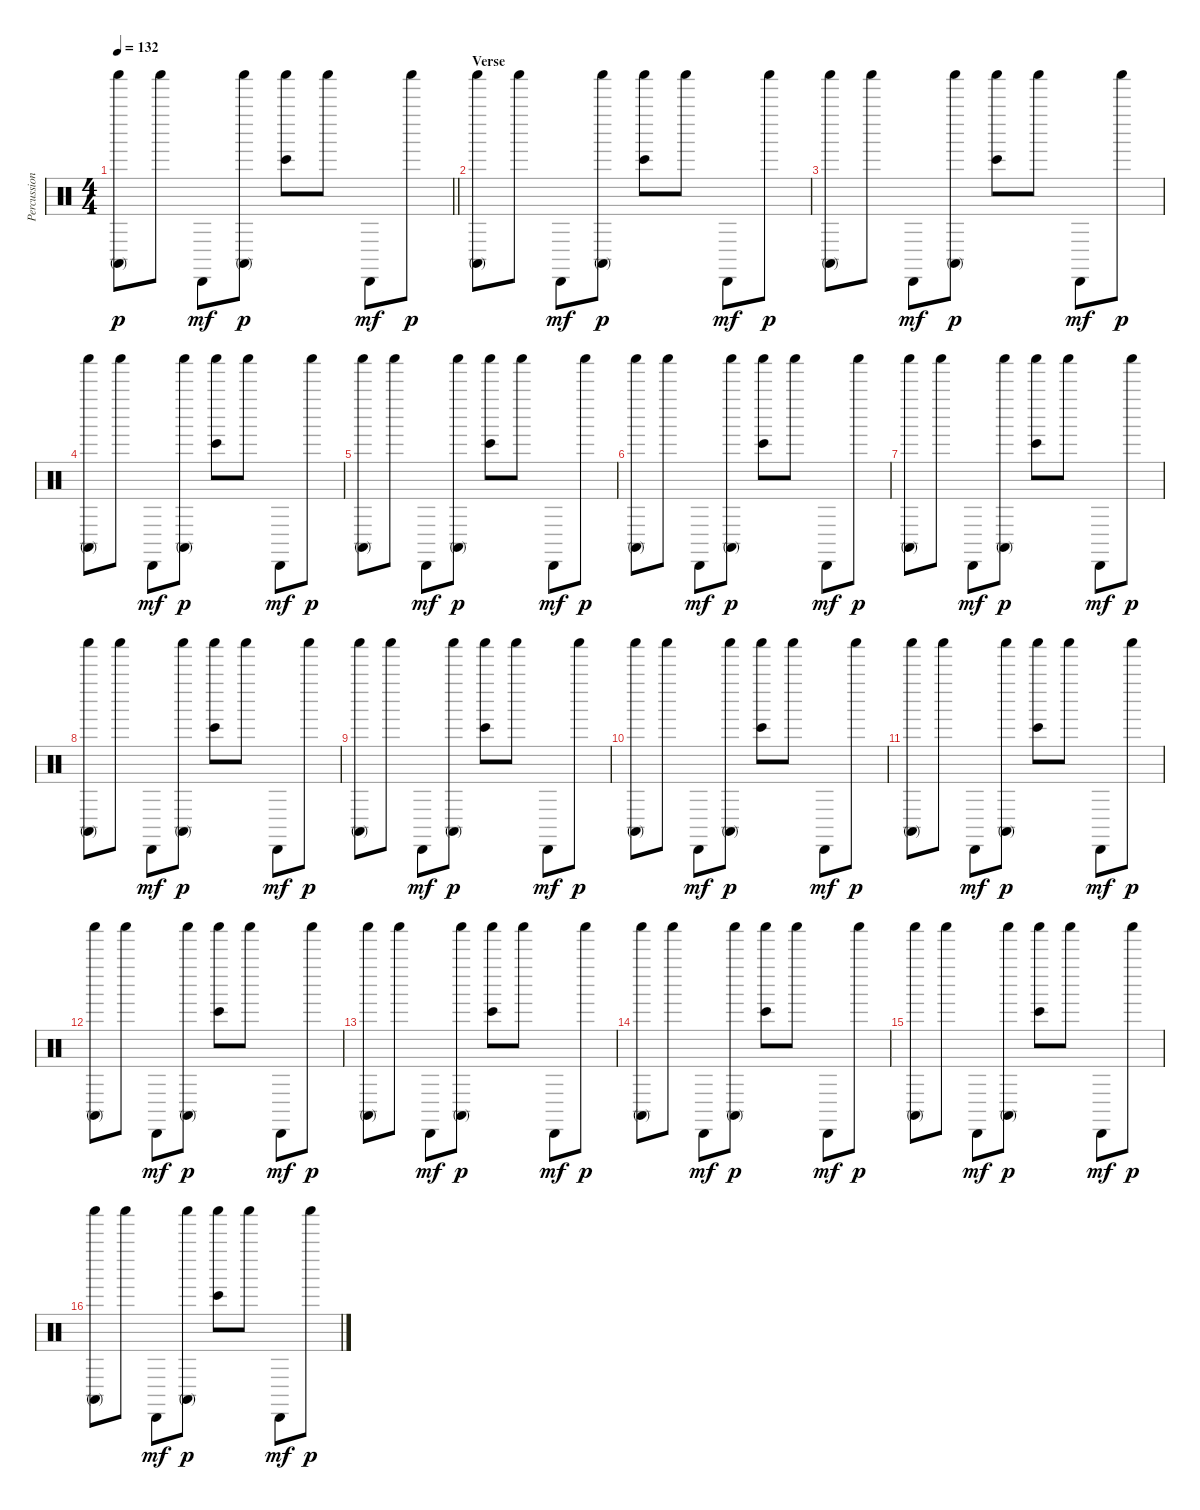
\track ("Percussions" "Percussion") {instrument percussion}
\staff {score}
\articulation defaults
\ts (4 4)
\tempo 132
\clef neutral
\barLineRight lightlight
\ks c
("Shaker (hit)" "Conga high (mute)").8{dy p} "Shaker (hit)".8 "Cabasa (hit)".8{dy mf} ("Shaker (hit)" "Conga high (mute)").8{dy p} ("Shaker (hit)" "Bongo High (hit)").8 "Shaker (hit)".8 "Cabasa (hit)".8{dy mf} "Shaker (hit)".8{dy p} |
\section ("" "Verse")
("Shaker (hit)" "Conga high (mute)").8 "Shaker (hit)".8 "Cabasa (hit)".8{dy mf} ("Shaker (hit)" "Conga high (mute)").8{dy p} ("Shaker (hit)" "Bongo High (hit)").8 "Shaker (hit)".8 "Cabasa (hit)".8{dy mf} "Shaker (hit)".8{dy p} |
("Shaker (hit)" "Conga high (mute)").8 "Shaker (hit)".8 "Cabasa (hit)".8{dy mf} ("Shaker (hit)" "Conga high (mute)").8{dy p} ("Shaker (hit)" "Bongo High (hit)").8 "Shaker (hit)".8 "Cabasa (hit)".8{dy mf} "Shaker (hit)".8{dy p} |
("Shaker (hit)" "Conga high (mute)").8 "Shaker (hit)".8 "Cabasa (hit)".8{dy mf} ("Shaker (hit)" "Conga high (mute)").8{dy p} ("Shaker (hit)" "Bongo High (hit)").8 "Shaker (hit)".8 "Cabasa (hit)".8{dy mf} "Shaker (hit)".8{dy p} |
("Shaker (hit)" "Conga high (mute)").8 "Shaker (hit)".8 "Cabasa (hit)".8{dy mf} ("Shaker (hit)" "Conga high (mute)").8{dy p} ("Shaker (hit)" "Bongo High (hit)").8 "Shaker (hit)".8 "Cabasa (hit)".8{dy mf} "Shaker (hit)".8{dy p} |
("Shaker (hit)" "Conga high (mute)").8 "Shaker (hit)".8 "Cabasa (hit)".8{dy mf} ("Shaker (hit)" "Conga high (mute)").8{dy p} ("Shaker (hit)" "Bongo High (hit)").8 "Shaker (hit)".8 "Cabasa (hit)".8{dy mf} "Shaker (hit)".8{dy p} |
("Shaker (hit)" "Conga high (mute)").8 "Shaker (hit)".8 "Cabasa (hit)".8{dy mf} ("Shaker (hit)" "Conga high (mute)").8{dy p} ("Shaker (hit)" "Bongo High (hit)").8 "Shaker (hit)".8 "Cabasa (hit)".8{dy mf} "Shaker (hit)".8{dy p} |
("Shaker (hit)" "Conga high (mute)").8 "Shaker (hit)".8 "Cabasa (hit)".8{dy mf} ("Shaker (hit)" "Conga high (mute)").8{dy p} ("Shaker (hit)" "Bongo High (hit)").8 "Shaker (hit)".8 "Cabasa (hit)".8{dy mf} "Shaker (hit)".8{dy p} |
("Shaker (hit)" "Conga high (mute)").8 "Shaker (hit)".8 "Cabasa (hit)".8{dy mf} ("Shaker (hit)" "Conga high (mute)").8{dy p} ("Shaker (hit)" "Bongo High (hit)").8 "Shaker (hit)".8 "Cabasa (hit)".8{dy mf} "Shaker (hit)".8{dy p} |
("Shaker (hit)" "Conga high (mute)").8 "Shaker (hit)".8 "Cabasa (hit)".8{dy mf} ("Shaker (hit)" "Conga high (mute)").8{dy p} ("Shaker (hit)" "Bongo High (hit)").8 "Shaker (hit)".8 "Cabasa (hit)".8{dy mf} "Shaker (hit)".8{dy p} |
("Shaker (hit)" "Conga high (mute)").8 "Shaker (hit)".8 "Cabasa (hit)".8{dy mf} ("Shaker (hit)" "Conga high (mute)").8{dy p} ("Shaker (hit)" "Bongo High (hit)").8 "Shaker (hit)".8 "Cabasa (hit)".8{dy mf} "Shaker (hit)".8{dy p} |
("Shaker (hit)" "Conga high (mute)").8 "Shaker (hit)".8 "Cabasa (hit)".8{dy mf} ("Shaker (hit)" "Conga high (mute)").8{dy p} ("Shaker (hit)" "Bongo High (hit)").8 "Shaker (hit)".8 "Cabasa (hit)".8{dy mf} "Shaker (hit)".8{dy p} |
("Shaker (hit)" "Conga high (mute)").8 "Shaker (hit)".8 "Cabasa (hit)".8{dy mf} ("Shaker (hit)" "Conga high (mute)").8{dy p} ("Shaker (hit)" "Bongo High (hit)").8 "Shaker (hit)".8 "Cabasa (hit)".8{dy mf} "Shaker (hit)".8{dy p} |
("Shaker (hit)" "Conga high (mute)").8 "Shaker (hit)".8 "Cabasa (hit)".8{dy mf} ("Shaker (hit)" "Conga high (mute)").8{dy p} ("Shaker (hit)" "Bongo High (hit)").8 "Shaker (hit)".8 "Cabasa (hit)".8{dy mf} "Shaker (hit)".8{dy p} |
("Shaker (hit)" "Conga high (mute)").8 "Shaker (hit)".8 "Cabasa (hit)".8{dy mf} ("Shaker (hit)" "Conga high (mute)").8{dy p} ("Shaker (hit)" "Bongo High (hit)").8 "Shaker (hit)".8 "Cabasa (hit)".8{dy mf} "Shaker (hit)".8{dy p} |
("Shaker (hit)" "Conga high (mute)").8 "Shaker (hit)".8 "Cabasa (hit)".8{dy mf} ("Shaker (hit)" "Conga high (mute)").8{dy p} ("Shaker (hit)" "Bongo High (hit)").8 "Shaker (hit)".8 "Cabasa (hit)".8{dy mf} "Shaker (hit)".8{dy p}
